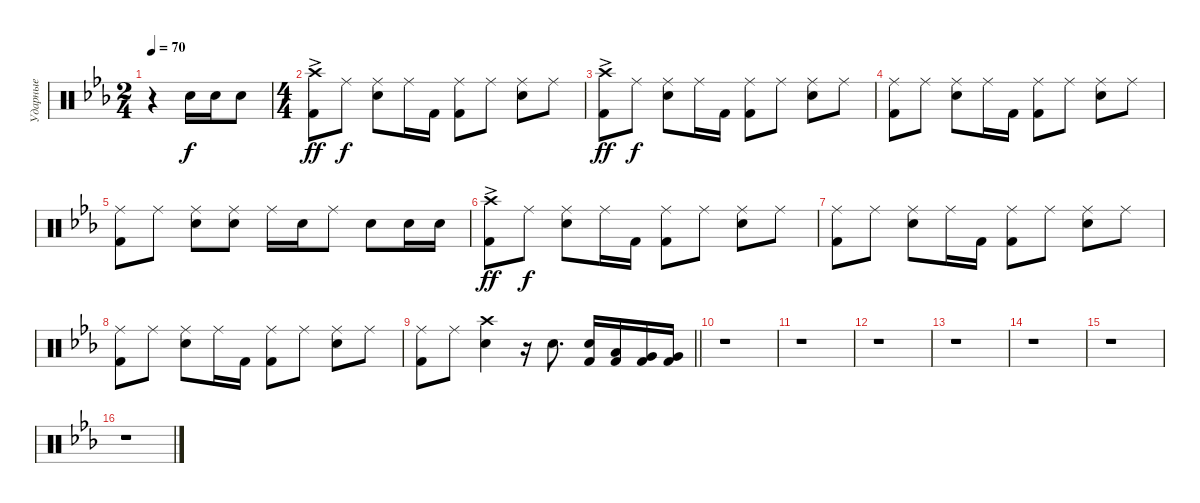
\track ("Ударные" "Ударные") {instrument percussion}
\staff {score}
\articulation defaults
\ts (2 4)
\tempo 70
\clef neutral
\ks eb
r.4{dy f} "Snare (hit) 2".16 "Snare (hit) 2".16 "Snare (hit) 2".8 |
\ts (4 4)
("Kick (hit) 2" "Crash high (hit)"{ac}).8{dy ff} "Ride (middle)".8{dy f} ("Snare (hit) 2" "Ride (middle)").8 "Ride (middle)".16 "Kick (hit) 2".16 ("Kick (hit) 2" "Ride (middle)").8 "Ride (middle)".8 ("Snare (hit) 2" "Ride (middle)").8 "Ride (middle)".8 |
("Kick (hit) 2" "Crash high (hit)"{ac}).8{dy ff} "Ride (middle)".8{dy f} ("Snare (hit) 2" "Ride (middle)").8 "Ride (middle)".16 "Kick (hit) 2".16 ("Kick (hit) 2" "Ride (middle)").8 "Ride (middle)".8 ("Snare (hit) 2" "Ride (middle)").8 "Ride (middle)".8 |
("Kick (hit) 2" "Ride (middle)").8 "Ride (middle)".8 ("Snare (hit) 2" "Ride (middle)").8 "Ride (middle)".16 "Kick (hit) 2".16 ("Kick (hit) 2" "Ride (middle)").8 "Ride (middle)".8 ("Snare (hit) 2" "Ride (middle)").8 "Ride (middle)".8 |
("Kick (hit) 2" "Ride (middle)").8 "Ride (middle)".8 ("Snare (hit) 2" "Ride (middle)").8 ("Snare (hit) 2" "Ride (middle)").8 "Ride (middle)".16 "Snare (hit) 2".16 "Ride (middle)".8 "Snare (hit) 2".8 "Snare (hit) 2".16 "Snare (hit) 2".16 |
("Kick (hit) 2" "Crash high (hit)"{ac}).8{dy ff} "Ride (middle)".8{dy f} ("Snare (hit) 2" "Ride (middle)").8 "Ride (middle)".16 "Kick (hit) 2".16 ("Kick (hit) 2" "Ride (middle)").8 "Ride (middle)".8 ("Snare (hit) 2" "Ride (middle)").8 "Ride (middle)".8 |
("Kick (hit) 2" "Ride (middle)").8 "Ride (middle)".8 ("Snare (hit) 2" "Ride (middle)").8 "Ride (middle)".16 "Kick (hit) 2".16 ("Kick (hit) 2" "Ride (middle)").8 "Ride (middle)".8 ("Snare (hit) 2" "Ride (middle)").8 "Ride (middle)".8 |
("Kick (hit) 2" "Ride (middle)").8 "Ride (middle)".8 ("Snare (hit) 2" "Ride (middle)").8 "Ride (middle)".16 "Kick (hit) 2".16 ("Kick (hit) 2" "Ride (middle)").8 "Ride (middle)".8 ("Snare (hit) 2" "Ride (middle)").8 "Ride (middle)".8 |
\barLineRight lightlight
("Kick (hit) 2" "Ride (middle)").8 "Ride (middle)".8 ("Snare (hit) 2" "Crash high (hit)").4 r.16 "Snare (hit) 2".8{d} ("Kick (hit) 2" "Snare (hit) 2").16 ("Kick (hit) 2" "Low Tom (hit)").16 ("Kick (hit) 2" "Very Low Tom (hit)").16 ("Kick (hit) 2" "Very Low Tom (hit)").16 |
r.1 |
r.1 |
r.1 |
r.1 |
r.1 |
r.1 |
r.1
